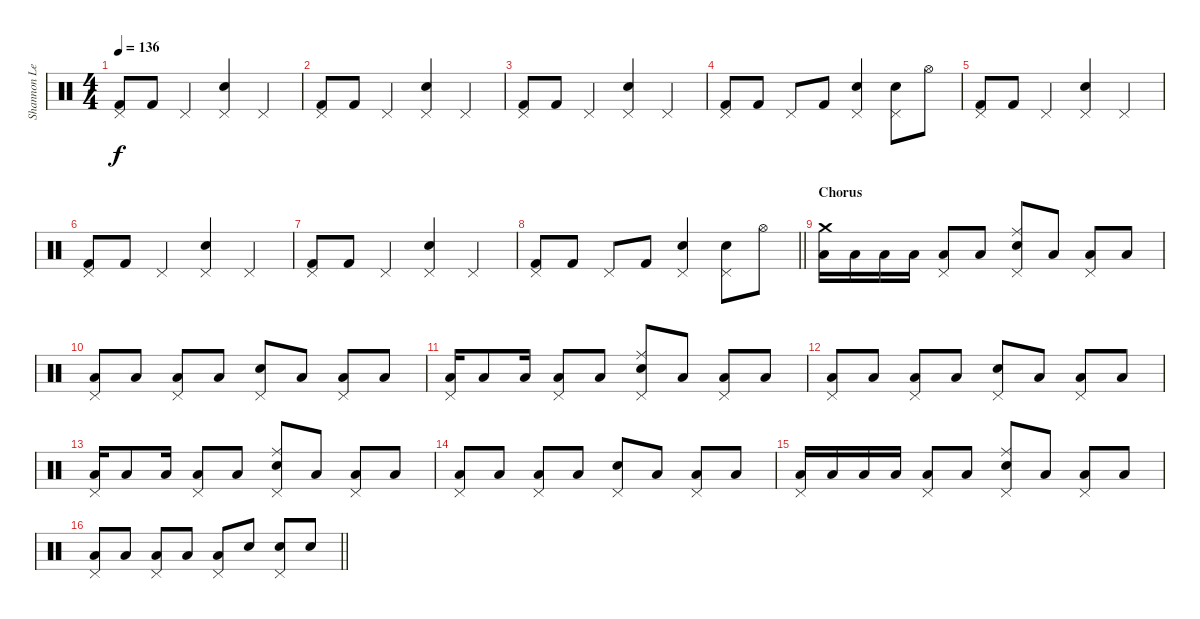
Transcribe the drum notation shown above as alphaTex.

\track ("Shannon Leto [Drums]" "Shannon Le") {instrument percussion}
\staff {score}
\articulation defaults
\ts (4 4)
\tempo 136
\clef neutral
\ks c
("Pedal Hi-Hat (hit)" "Kick (hit) 2").8{dy f} "Kick (hit) 2".8 "Pedal Hi-Hat (hit)".4 ("Pedal Hi-Hat (hit)" "Electric Snare (hit)").4 "Pedal Hi-Hat (hit)".4 |
("Pedal Hi-Hat (hit)" "Kick (hit) 2").8 "Kick (hit) 2".8 "Pedal Hi-Hat (hit)".4 ("Pedal Hi-Hat (hit)" "Electric Snare (hit)").4 "Pedal Hi-Hat (hit)".4 |
("Pedal Hi-Hat (hit)" "Kick (hit) 2").8 "Kick (hit) 2".8 "Pedal Hi-Hat (hit)".4 ("Pedal Hi-Hat (hit)" "Electric Snare (hit)").4 "Pedal Hi-Hat (hit)".4 |
("Pedal Hi-Hat (hit)" "Kick (hit) 2").8 "Kick (hit) 2".8 "Pedal Hi-Hat (hit)".8 "Kick (hit) 2".8 ("Pedal Hi-Hat (hit)" "Electric Snare (hit)").4 ("Pedal Hi-Hat (hit)" "Electric Snare (hit)").8 "Hi-Hat (open)".8 |
("Pedal Hi-Hat (hit)" "Kick (hit) 2").8 "Kick (hit) 2".8 "Pedal Hi-Hat (hit)".4 ("Pedal Hi-Hat (hit)" "Electric Snare (hit)").4 "Pedal Hi-Hat (hit)".4 |
("Pedal Hi-Hat (hit)" "Kick (hit) 2").8 "Kick (hit) 2".8 "Pedal Hi-Hat (hit)".4 ("Pedal Hi-Hat (hit)" "Electric Snare (hit)").4 "Pedal Hi-Hat (hit)".4 |
("Pedal Hi-Hat (hit)" "Kick (hit) 2").8 "Kick (hit) 2".8 "Pedal Hi-Hat (hit)".4 ("Pedal Hi-Hat (hit)" "Electric Snare (hit)").4 "Pedal Hi-Hat (hit)".4 |
\barLineRight lightlight
("Pedal Hi-Hat (hit)" "Kick (hit) 2").8 "Kick (hit) 2".8 "Pedal Hi-Hat (hit)".8 "Kick (hit) 2".8 ("Pedal Hi-Hat (hit)" "Electric Snare (hit)").4 ("Pedal Hi-Hat (hit)" "Electric Snare (hit)").8 "Hi-Hat (open)".8 |
\section ("" "Chorus")
("Crash medium (hit)" "Low Tom (hit)").16 "Low Tom (hit)".16 "Low Tom (hit)".16 "Low Tom (hit)".16 ("Pedal Hi-Hat (hit)" "Low Tom (hit)").8 "Low Tom (hit)".8 ("Pedal Hi-Hat (hit)" "Ride (middle)" "Electric Snare (hit)").8 "Low Tom (hit)".8 ("Pedal Hi-Hat (hit)" "Low Tom (hit)").8 "Low Tom (hit)".8 |
("Pedal Hi-Hat (hit)" "Low Tom (hit)").8 "Low Tom (hit)".8 ("Pedal Hi-Hat (hit)" "Low Tom (hit)").8 "Low Tom (hit)".8 ("Pedal Hi-Hat (hit)" "Electric Snare (hit)").8 "Low Tom (hit)".8 ("Pedal Hi-Hat (hit)" "Low Tom (hit)").8 "Low Tom (hit)".8 |
("Pedal Hi-Hat (hit)" "Low Tom (hit)").16 "Low Tom (hit)".8 "Low Tom (hit)".16 ("Pedal Hi-Hat (hit)" "Low Tom (hit)").8 "Low Tom (hit)".8 ("Pedal Hi-Hat (hit)" "Ride (middle)" "Electric Snare (hit)").8 "Low Tom (hit)".8 ("Pedal Hi-Hat (hit)" "Low Tom (hit)").8 "Low Tom (hit)".8 |
("Pedal Hi-Hat (hit)" "Low Tom (hit)").8 "Low Tom (hit)".8 ("Pedal Hi-Hat (hit)" "Low Tom (hit)").8 "Low Tom (hit)".8 ("Pedal Hi-Hat (hit)" "Electric Snare (hit)").8 "Low Tom (hit)".8 ("Pedal Hi-Hat (hit)" "Low Tom (hit)").8 "Low Tom (hit)".8 |
("Pedal Hi-Hat (hit)" "Low Tom (hit)").16 "Low Tom (hit)".8 "Low Tom (hit)".16 ("Pedal Hi-Hat (hit)" "Low Tom (hit)").8 "Low Tom (hit)".8 ("Pedal Hi-Hat (hit)" "Ride (middle)" "Electric Snare (hit)").8 "Low Tom (hit)".8 ("Pedal Hi-Hat (hit)" "Low Tom (hit)").8 "Low Tom (hit)".8 |
("Pedal Hi-Hat (hit)" "Low Tom (hit)").8 "Low Tom (hit)".8 ("Pedal Hi-Hat (hit)" "Low Tom (hit)").8 "Low Tom (hit)".8 ("Pedal Hi-Hat (hit)" "Electric Snare (hit)").8 "Low Tom (hit)".8 ("Pedal Hi-Hat (hit)" "Low Tom (hit)").8 "Low Tom (hit)".8 |
("Pedal Hi-Hat (hit)" "Low Tom (hit)").16 "Low Tom (hit)".16 "Low Tom (hit)".16 "Low Tom (hit)".16 ("Pedal Hi-Hat (hit)" "Low Tom (hit)").8 "Low Tom (hit)".8 ("Pedal Hi-Hat (hit)" "Ride (middle)" "Electric Snare (hit)").8 "Low Tom (hit)".8 ("Pedal Hi-Hat (hit)" "Low Tom (hit)").8 "Low Tom (hit)".8 |
\barLineRight lightlight
("Pedal Hi-Hat (hit)" "Low Tom (hit)").8 "Low Tom (hit)".8 ("Pedal Hi-Hat (hit)" "Low Tom (hit)").8 "Low Tom (hit)".8 ("Pedal Hi-Hat (hit)" "Low Tom (hit)").8 "Electric Snare (hit)".8 ("Pedal Hi-Hat (hit)" "Electric Snare (hit)").8 "Electric Snare (hit)".8
